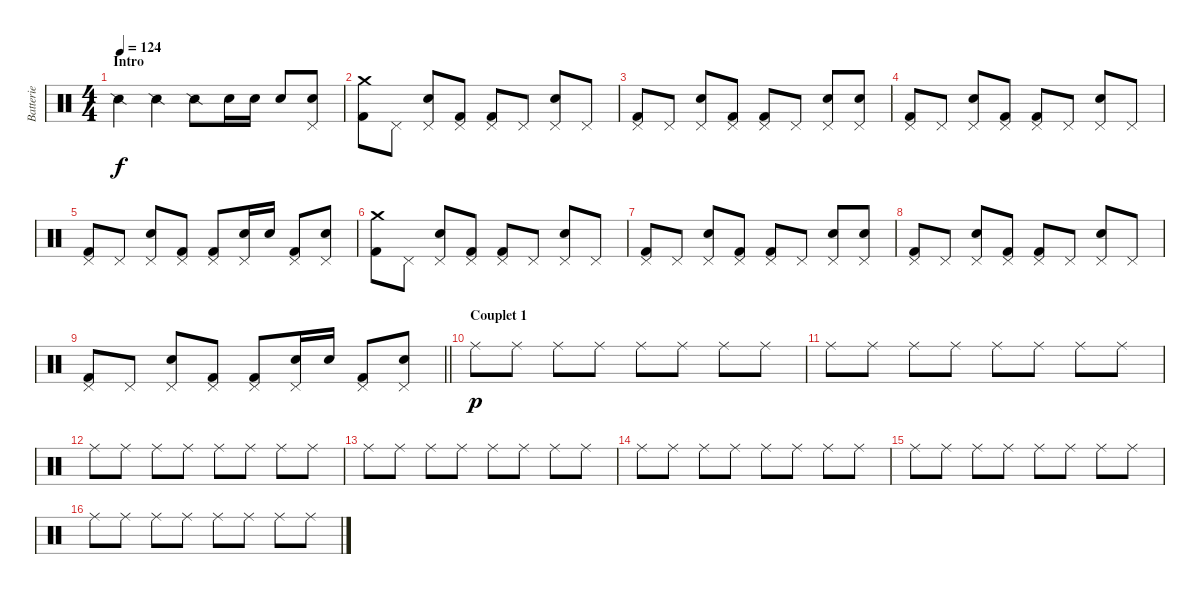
\track ("Batterie" "Batterie") {instrument percussion}
\staff {score}
\articulation defaults
\ts (4 4)
\section ("" "Intro")
\tempo 124
\clef neutral
\ks c "Snare (side stick) 2".4{dy f} "Snare (side stick) 2".4 "Snare (side stick) 2".8 "Electric Snare (hit)".16 "Electric Snare (hit)".16 "Electric Snare (hit)".8
("Pedal Hi-Hat (hit)" "Electric Snare (hit)").8 |
("Crash medium (hit)" "Kick (hit) 2").8 "Pedal Hi-Hat (hit)".8 ("Pedal Hi-Hat (hit)" "Electric Snare (hit)").8 ("Pedal Hi-Hat (hit)" "Kick (hit) 2").8 ("Pedal Hi-Hat (hit)" "Kick (hit) 2").8 "Pedal Hi-Hat (hit)".8 ("Pedal Hi-Hat (hit)" "Electric Snare (hit)").8 "Pedal Hi-Hat (hit)".8 |
("Pedal Hi-Hat (hit)" "Kick (hit) 2").8 "Pedal Hi-Hat (hit)".8 ("Pedal Hi-Hat (hit)" "Electric Snare (hit)").8 ("Pedal Hi-Hat (hit)" "Kick (hit) 2").8 ("Pedal Hi-Hat (hit)" "Kick (hit) 2").8 "Pedal Hi-Hat (hit)".8 ("Pedal Hi-Hat (hit)" "Electric Snare (hit)").8 ("Pedal Hi-Hat (hit)" "Electric Snare (hit)").8 |
("Pedal Hi-Hat (hit)" "Kick (hit) 2").8 "Pedal Hi-Hat (hit)".8 ("Pedal Hi-Hat (hit)" "Electric Snare (hit)").8 ("Pedal Hi-Hat (hit)" "Kick (hit) 2").8 ("Pedal Hi-Hat (hit)" "Kick (hit) 2").8 "Pedal Hi-Hat (hit)".8 ("Pedal Hi-Hat (hit)" "Electric Snare (hit)").8 "Pedal Hi-Hat (hit)".8 |
("Pedal Hi-Hat (hit)" "Kick (hit) 2").8 "Pedal Hi-Hat (hit)".8 ("Pedal Hi-Hat (hit)" "Electric Snare (hit)").8 ("Pedal Hi-Hat (hit)" "Kick (hit) 2").8 ("Pedal Hi-Hat (hit)" "Kick (hit) 2").8 ("Pedal Hi-Hat (hit)" "Electric Snare (hit)").16 "Electric Snare (hit)".16 ("Pedal Hi-Hat (hit)" "Kick (hit) 2").8 ("Pedal Hi-Hat (hit)" "Electric Snare (hit)").8 |
("Crash medium (hit)" "Kick (hit) 2").8 "Pedal Hi-Hat (hit)".8 ("Pedal Hi-Hat (hit)" "Electric Snare (hit)").8 ("Pedal Hi-Hat (hit)" "Kick (hit) 2").8 ("Pedal Hi-Hat (hit)" "Kick (hit) 2").8 "Pedal Hi-Hat (hit)".8 ("Pedal Hi-Hat (hit)" "Electric Snare (hit)").8 "Pedal Hi-Hat (hit)".8 |
("Pedal Hi-Hat (hit)" "Kick (hit) 2").8 "Pedal Hi-Hat (hit)".8 ("Pedal Hi-Hat (hit)" "Electric Snare (hit)").8 ("Pedal Hi-Hat (hit)" "Kick (hit) 2").8 ("Pedal Hi-Hat (hit)" "Kick (hit) 2").8 "Pedal Hi-Hat (hit)".8 ("Pedal Hi-Hat (hit)" "Electric Snare (hit)").8 ("Pedal Hi-Hat (hit)" "Electric Snare (hit)").8 |
("Pedal Hi-Hat (hit)" "Kick (hit) 2").8 "Pedal Hi-Hat (hit)".8 ("Pedal Hi-Hat (hit)" "Electric Snare (hit)").8 ("Pedal Hi-Hat (hit)" "Kick (hit) 2").8 ("Pedal Hi-Hat (hit)" "Kick (hit) 2").8 "Pedal Hi-Hat (hit)".8 ("Pedal Hi-Hat (hit)" "Electric Snare (hit)").8 "Pedal Hi-Hat (hit)".8 |
\barLineRight lightlight
("Pedal Hi-Hat (hit)" "Kick (hit) 2").8 "Pedal Hi-Hat (hit)".8 ("Pedal Hi-Hat (hit)" "Electric Snare (hit)").8 ("Pedal Hi-Hat (hit)" "Kick (hit) 2").8 ("Pedal Hi-Hat (hit)" "Kick (hit) 2").8 ("Pedal Hi-Hat (hit)" "Electric Snare (hit)").16 "Electric Snare (hit)".16 ("Pedal Hi-Hat (hit)" "Kick (hit) 2").8 ("Pedal Hi-Hat (hit)" "Electric Snare (hit)").8 |
\section ("" "Couplet 1")
"Ride (middle)".8{dy p} "Ride (middle)".8 "Ride (middle)".8 "Ride (middle)".8 "Ride (middle)".8 "Ride (middle)".8 "Ride (middle)".8 "Ride (middle)".8 |
"Ride (middle)".8 "Ride (middle)".8 "Ride (middle)".8 "Ride (middle)".8 "Ride (middle)".8 "Ride (middle)".8 "Ride (middle)".8 "Ride (middle)".8 |
"Ride (middle)".8 "Ride (middle)".8 "Ride (middle)".8 "Ride (middle)".8 "Ride (middle)".8 "Ride (middle)".8 "Ride (middle)".8 "Ride (middle)".8 |
"Ride (middle)".8 "Ride (middle)".8 "Ride (middle)".8 "Ride (middle)".8 "Ride (middle)".8 "Ride (middle)".8 "Ride (middle)".8 "Ride (middle)".8 |
"Ride (middle)".8 "Ride (middle)".8 "Ride (middle)".8 "Ride (middle)".8 "Ride (middle)".8 "Ride (middle)".8 "Ride (middle)".8 "Ride (middle)".8 |
"Ride (middle)".8 "Ride (middle)".8 "Ride (middle)".8 "Ride (middle)".8 "Ride (middle)".8 "Ride (middle)".8 "Ride (middle)".8 "Ride (middle)".8 |
"Ride (middle)".8 "Ride (middle)".8 "Ride (middle)".8 "Ride (middle)".8 "Ride (middle)".8 "Ride (middle)".8 "Ride (middle)".8 "Ride (middle)".8
